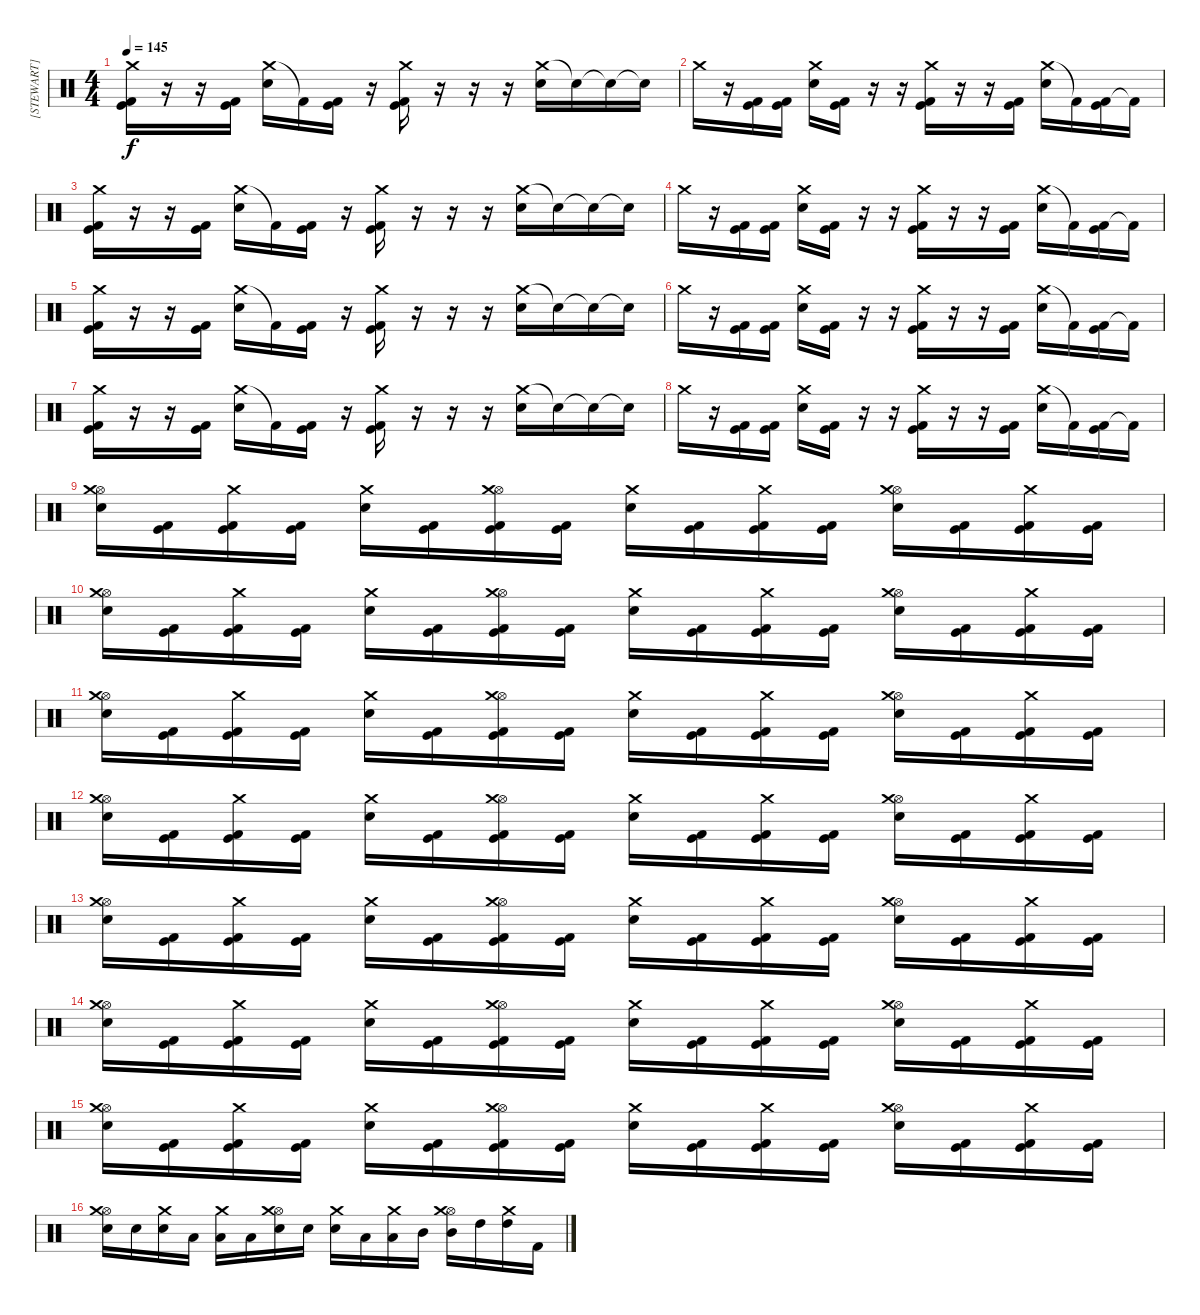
\track ("[STEWART]" "[STEWART]") {instrument percussion}
\staff {score}
\articulation defaults
\ts (4 4)
\tempo 145
\clef neutral
\ks c
("Crash medium (hit)" "Kick (hit) 2" "Kick (hit)").16{dy f} r.16 r.16 ("Kick (hit) 2" "Kick (hit)").16 ("Crash medium (hit)" "Electric Snare (hit)").16 "Kick (hit) 2"{t}.16 ("Kick (hit) 2" "Kick (hit)").16 r.16 ("Crash medium (hit)" "Kick (hit) 2" "Kick (hit)").16 r.16 r.16 r.16 ("Crash medium (hit)" "Electric Snare (hit)").16 "Snare (hit)"{t}.16 "Snare (hit)"{t}.16 "Snare (hit)"{t}.16 |
"Crash medium (hit)".16 r.16 ("Kick (hit) 2" "Kick (hit)").16 ("Kick (hit) 2" "Kick (hit)").16 ("Crash medium (hit)" "Electric Snare (hit)").16 ("Kick (hit) 2" "Kick (hit)").16 r.16 r.16 ("Crash medium (hit)" "Kick (hit) 2" "Kick (hit)").16 r.16 r.16 ("Kick (hit) 2" "Kick (hit)").16 ("Crash medium (hit)" "Electric Snare (hit)").16 "Kick (hit) 2"{t}.16 ("Kick (hit) 2" "Kick (hit)").16 "Kick (hit) 2"{t}.16 |
("Crash medium (hit)" "Kick (hit) 2" "Kick (hit)").16 r.16 r.16 ("Kick (hit) 2" "Kick (hit)").16 ("Crash medium (hit)" "Electric Snare (hit)").16 "Kick (hit) 2"{t}.16 ("Kick (hit) 2" "Kick (hit)").16 r.16 ("Crash medium (hit)" "Kick (hit) 2" "Kick (hit)").16 r.16 r.16 r.16 ("Crash medium (hit)" "Electric Snare (hit)").16 "Snare (hit)"{t}.16 "Snare (hit)"{t}.16 "Snare (hit)"{t}.16 |
"Crash medium (hit)".16 r.16 ("Kick (hit) 2" "Kick (hit)").16 ("Kick (hit) 2" "Kick (hit)").16 ("Crash medium (hit)" "Electric Snare (hit)").16 ("Kick (hit) 2" "Kick (hit)").16 r.16 r.16 ("Crash medium (hit)" "Kick (hit) 2" "Kick (hit)").16 r.16 r.16 ("Kick (hit) 2" "Kick (hit)").16 ("Crash medium (hit)" "Electric Snare (hit)").16 "Kick (hit) 2"{t}.16 ("Kick (hit) 2" "Kick (hit)").16 "Kick (hit) 2"{t}.16 |
("Crash medium (hit)" "Kick (hit) 2" "Kick (hit)").16 r.16 r.16 ("Kick (hit) 2" "Kick (hit)").16 ("Crash medium (hit)" "Electric Snare (hit)").16 "Kick (hit) 2"{t}.16 ("Kick (hit) 2" "Kick (hit)").16 r.16 ("Crash medium (hit)" "Kick (hit) 2" "Kick (hit)").16 r.16 r.16 r.16 ("Crash medium (hit)" "Electric Snare (hit)").16 "Snare (hit)"{t}.16 "Snare (hit)"{t}.16 "Snare (hit)"{t}.16 |
"Crash medium (hit)".16 r.16 ("Kick (hit) 2" "Kick (hit)").16 ("Kick (hit) 2" "Kick (hit)").16 ("Crash medium (hit)" "Electric Snare (hit)").16 ("Kick (hit) 2" "Kick (hit)").16 r.16 r.16 ("Crash medium (hit)" "Kick (hit) 2" "Kick (hit)").16 r.16 r.16 ("Kick (hit) 2" "Kick (hit)").16 ("Crash medium (hit)" "Electric Snare (hit)").16 "Kick (hit) 2"{t}.16 ("Kick (hit) 2" "Kick (hit)").16 "Kick (hit) 2"{t}.16 |
("Crash medium (hit)" "Kick (hit) 2" "Kick (hit)").16 r.16 r.16 ("Kick (hit) 2" "Kick (hit)").16 ("Crash medium (hit)" "Electric Snare (hit)").16 "Kick (hit) 2"{t}.16 ("Kick (hit) 2" "Kick (hit)").16 r.16 ("Crash medium (hit)" "Kick (hit) 2" "Kick (hit)").16 r.16 r.16 r.16 ("Crash medium (hit)" "Electric Snare (hit)").16 "Snare (hit)"{t}.16 "Snare (hit)"{t}.16 "Snare (hit)"{t}.16 |
"Crash medium (hit)".16 r.16 ("Kick (hit) 2" "Kick (hit)").16 ("Kick (hit) 2" "Kick (hit)").16 ("Crash medium (hit)" "Electric Snare (hit)").16 ("Kick (hit) 2" "Kick (hit)").16 r.16 r.16 ("Crash medium (hit)" "Kick (hit) 2" "Kick (hit)").16 r.16 r.16 ("Kick (hit) 2" "Kick (hit)").16 ("Crash medium (hit)" "Electric Snare (hit)").16 "Kick (hit) 2"{t}.16 ("Kick (hit) 2" "Kick (hit)").16 "Kick (hit) 2"{t}.16 |
("Hi-Hat (open)" "Crash medium (hit)" "Electric Snare (hit)").16 ("Kick (hit) 2" "Kick (hit)").16 ("Crash medium (hit)" "Kick (hit) 2" "Kick (hit)").16 ("Kick (hit) 2" "Kick (hit)").16 ("Crash medium (hit)" "Electric Snare (hit)").16 ("Kick (hit) 2" "Kick (hit)").16 ("Hi-Hat (open)" "Crash medium (hit)" "Kick (hit) 2" "Kick (hit)").16 ("Kick (hit) 2" "Kick (hit)").16 ("Crash medium (hit)" "Electric Snare (hit)").16 ("Kick (hit) 2" "Kick (hit)").16 ("Crash medium (hit)" "Kick (hit) 2" "Kick (hit)").16 ("Kick (hit) 2" "Kick (hit)").16 ("Hi-Hat (open)" "Crash medium (hit)" "Electric Snare (hit)").16 ("Kick (hit) 2" "Kick (hit)").16 ("Crash medium (hit)" "Kick (hit) 2" "Kick (hit)").16 ("Kick (hit) 2" "Kick (hit)").16 |
("Hi-Hat (open)" "Crash medium (hit)" "Electric Snare (hit)").16 ("Kick (hit) 2" "Kick (hit)").16 ("Crash medium (hit)" "Kick (hit) 2" "Kick (hit)").16 ("Kick (hit) 2" "Kick (hit)").16 ("Crash medium (hit)" "Electric Snare (hit)").16 ("Kick (hit) 2" "Kick (hit)").16 ("Hi-Hat (open)" "Crash medium (hit)" "Kick (hit) 2" "Kick (hit)").16 ("Kick (hit) 2" "Kick (hit)").16 ("Crash medium (hit)" "Electric Snare (hit)").16 ("Kick (hit) 2" "Kick (hit)").16 ("Crash medium (hit)" "Kick (hit) 2" "Kick (hit)").16 ("Kick (hit) 2" "Kick (hit)").16 ("Hi-Hat (open)" "Crash medium (hit)" "Electric Snare (hit)").16 ("Kick (hit) 2" "Kick (hit)").16 ("Crash medium (hit)" "Kick (hit) 2" "Kick (hit)").16 ("Kick (hit) 2" "Kick (hit)").16 |
("Hi-Hat (open)" "Crash medium (hit)" "Electric Snare (hit)").16 ("Kick (hit) 2" "Kick (hit)").16 ("Crash medium (hit)" "Kick (hit) 2" "Kick (hit)").16 ("Kick (hit) 2" "Kick (hit)").16 ("Crash medium (hit)" "Electric Snare (hit)").16 ("Kick (hit) 2" "Kick (hit)").16 ("Hi-Hat (open)" "Crash medium (hit)" "Kick (hit) 2" "Kick (hit)").16 ("Kick (hit) 2" "Kick (hit)").16 ("Crash medium (hit)" "Electric Snare (hit)").16 ("Kick (hit) 2" "Kick (hit)").16 ("Crash medium (hit)" "Kick (hit) 2" "Kick (hit)").16 ("Kick (hit) 2" "Kick (hit)").16 ("Hi-Hat (open)" "Crash medium (hit)" "Electric Snare (hit)").16 ("Kick (hit) 2" "Kick (hit)").16 ("Crash medium (hit)" "Kick (hit) 2" "Kick (hit)").16 ("Kick (hit) 2" "Kick (hit)").16 |
("Hi-Hat (open)" "Crash medium (hit)" "Electric Snare (hit)").16 ("Kick (hit) 2" "Kick (hit)").16 ("Crash medium (hit)" "Kick (hit) 2" "Kick (hit)").16 ("Kick (hit) 2" "Kick (hit)").16 ("Crash medium (hit)" "Electric Snare (hit)").16 ("Kick (hit) 2" "Kick (hit)").16 ("Hi-Hat (open)" "Crash medium (hit)" "Kick (hit) 2" "Kick (hit)").16 ("Kick (hit) 2" "Kick (hit)").16 ("Crash medium (hit)" "Electric Snare (hit)").16 ("Kick (hit) 2" "Kick (hit)").16 ("Crash medium (hit)" "Kick (hit) 2" "Kick (hit)").16 ("Kick (hit) 2" "Kick (hit)").16 ("Hi-Hat (open)" "Crash medium (hit)" "Electric Snare (hit)").16 ("Kick (hit) 2" "Kick (hit)").16 ("Crash medium (hit)" "Kick (hit) 2" "Kick (hit)").16 ("Kick (hit) 2" "Kick (hit)").16 |
("Hi-Hat (open)" "Crash medium (hit)" "Electric Snare (hit)").16 ("Kick (hit) 2" "Kick (hit)").16 ("Crash medium (hit)" "Kick (hit) 2" "Kick (hit)").16 ("Kick (hit) 2" "Kick (hit)").16 ("Crash medium (hit)" "Electric Snare (hit)").16 ("Kick (hit) 2" "Kick (hit)").16 ("Hi-Hat (open)" "Crash medium (hit)" "Kick (hit) 2" "Kick (hit)").16 ("Kick (hit) 2" "Kick (hit)").16 ("Crash medium (hit)" "Electric Snare (hit)").16 ("Kick (hit) 2" "Kick (hit)").16 ("Crash medium (hit)" "Kick (hit) 2" "Kick (hit)").16 ("Kick (hit) 2" "Kick (hit)").16 ("Hi-Hat (open)" "Crash medium (hit)" "Electric Snare (hit)").16 ("Kick (hit) 2" "Kick (hit)").16 ("Crash medium (hit)" "Kick (hit) 2" "Kick (hit)").16 ("Kick (hit) 2" "Kick (hit)").16 |
("Hi-Hat (open)" "Crash medium (hit)" "Electric Snare (hit)").16 ("Kick (hit) 2" "Kick (hit)").16 ("Crash medium (hit)" "Kick (hit) 2" "Kick (hit)").16 ("Kick (hit) 2" "Kick (hit)").16 ("Crash medium (hit)" "Electric Snare (hit)").16 ("Kick (hit) 2" "Kick (hit)").16 ("Hi-Hat (open)" "Crash medium (hit)" "Kick (hit) 2" "Kick (hit)").16 ("Kick (hit) 2" "Kick (hit)").16 ("Crash medium (hit)" "Electric Snare (hit)").16 ("Kick (hit) 2" "Kick (hit)").16 ("Crash medium (hit)" "Kick (hit) 2" "Kick (hit)").16 ("Kick (hit) 2" "Kick (hit)").16 ("Hi-Hat (open)" "Crash medium (hit)" "Electric Snare (hit)").16 ("Kick (hit) 2" "Kick (hit)").16 ("Crash medium (hit)" "Kick (hit) 2" "Kick (hit)").16 ("Kick (hit) 2" "Kick (hit)").16 |
("Hi-Hat (open)" "Crash medium (hit)" "Electric Snare (hit)").16 ("Kick (hit) 2" "Kick (hit)").16 ("Crash medium (hit)" "Kick (hit) 2" "Kick (hit)").16 ("Kick (hit) 2" "Kick (hit)").16 ("Crash medium (hit)" "Electric Snare (hit)").16 ("Kick (hit) 2" "Kick (hit)").16 ("Hi-Hat (open)" "Crash medium (hit)" "Kick (hit) 2" "Kick (hit)").16 ("Kick (hit) 2" "Kick (hit)").16 ("Crash medium (hit)" "Electric Snare (hit)").16 ("Kick (hit) 2" "Kick (hit)").16 ("Crash medium (hit)" "Kick (hit) 2" "Kick (hit)").16 ("Kick (hit) 2" "Kick (hit)").16 ("Hi-Hat (open)" "Crash medium (hit)" "Electric Snare (hit)").16 ("Kick (hit) 2" "Kick (hit)").16 ("Crash medium (hit)" "Kick (hit) 2" "Kick (hit)").16 ("Kick (hit) 2" "Kick (hit)").16 |
("Hi-Hat (open)" "Crash medium (hit)" "Electric Snare (hit)").16 "Electric Snare (hit)".16 ("Crash medium (hit)" "Electric Snare (hit)").16 "Low Tom (hit)".16 ("Crash medium (hit)" "Low Tom (hit)").16 "Low Tom (hit)".16 ("Hi-Hat (open)" "Crash medium (hit)" "Electric Snare (hit)").16 "Electric Snare (hit)".16 ("Crash medium (hit)" "Electric Snare (hit)").16 "Low Tom (hit)".16 ("Crash medium (hit)" "Low Tom (hit)").16 "Mid Tom (hit)".16 ("Hi-Hat (open)" "Crash medium (hit)" "Mid Tom (hit)").16 "High Tom (hit)".16 ("Crash medium (hit)" "High Tom (hit)").16 "Kick (hit) 2".16
